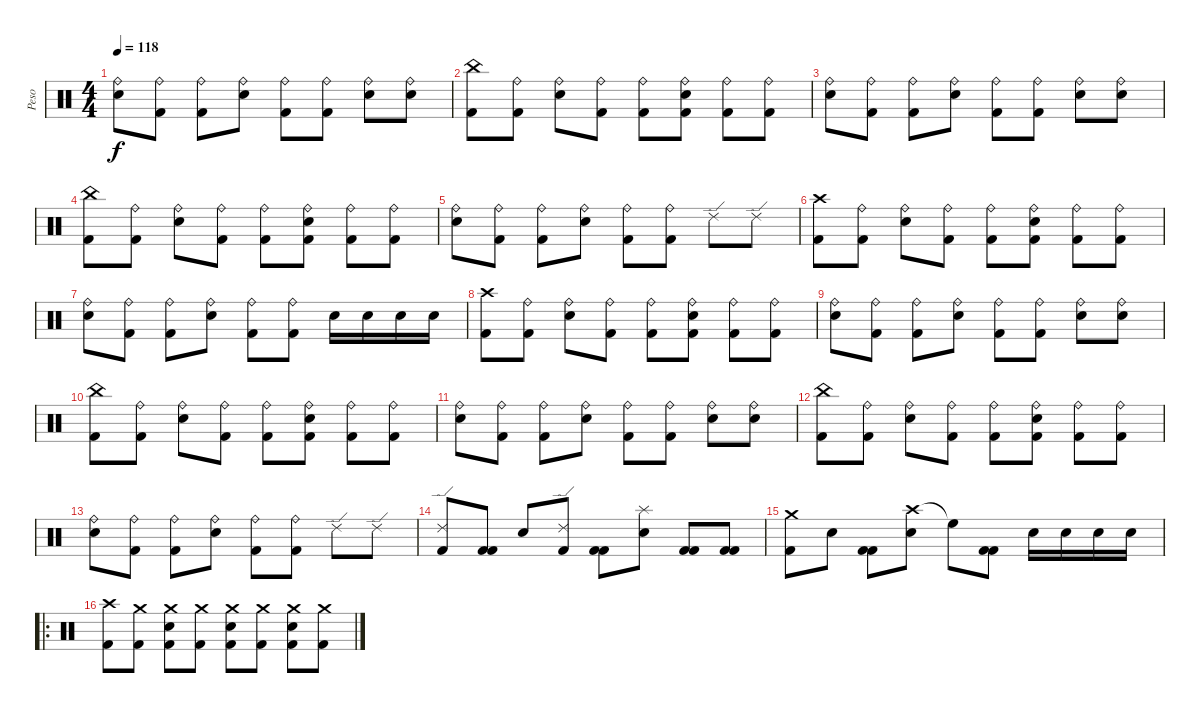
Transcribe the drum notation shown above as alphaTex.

\track ("Peso" "Peso") {instrument percussion}
\staff {score}
\articulation defaults
\ts (4 4)
\tempo 118
\clef neutral
\ks c
("Ride (bell)" "Snare (hit) 2").8{dy f} ("Ride (bell)" "Kick (hit) 2").8 ("Ride (bell)" "Kick (hit) 2").8 ("Ride (bell)" "Snare (hit) 2").8 ("Ride (bell)" "Kick (hit) 2").8 ("Ride (bell)" "Kick (hit) 2").8 ("Ride (bell)" "Snare (hit) 2").8 ("Ride (bell)" "Snare (hit) 2").8 |
("China (hit)" "Kick (hit) 2").8 ("Ride (bell)" "Kick (hit) 2").8 ("Ride (bell)" "Snare (hit) 2").8 ("Ride (bell)" "Kick (hit) 2").8 ("Ride (bell)" "Kick (hit) 2").8 ("Ride (bell)" "Snare (hit) 2" "Kick (hit) 2").8 ("Ride (bell)" "Kick (hit) 2").8 ("Ride (bell)" "Kick (hit) 2").8 |
("Ride (bell)" "Snare (hit) 2").8 ("Ride (bell)" "Kick (hit) 2").8 ("Ride (bell)" "Kick (hit) 2").8 ("Ride (bell)" "Snare (hit) 2").8 ("Ride (bell)" "Kick (hit) 2").8 ("Ride (bell)" "Kick (hit) 2").8 ("Ride (bell)" "Snare (hit) 2").8 ("Ride (bell)" "Snare (hit) 2").8 |
("China (hit)" "Kick (hit) 2").8 ("Ride (bell)" "Kick (hit) 2").8 ("Ride (bell)" "Snare (hit) 2").8 ("Ride (bell)" "Kick (hit) 2").8 ("Ride (bell)" "Kick (hit) 2").8 ("Ride (bell)" "Snare (hit) 2" "Kick (hit) 2").8 ("Ride (bell)" "Kick (hit) 2").8 ("Ride (bell)" "Kick (hit) 2").8 |
("Ride (bell)" "Snare (hit) 2").8 ("Ride (bell)" "Kick (hit) 2").8 ("Ride (bell)" "Kick (hit) 2").8 ("Ride (bell)" "Snare (hit) 2").8 ("Ride (bell)" "Kick (hit) 2").8 ("Ride (bell)" "Kick (hit) 2").8 "Ride (edge) 2".8 "Ride (edge) 2".8 |
("Crash high (hit)" "Kick (hit) 2").8 ("Ride (bell)" "Kick (hit) 2").8 ("Ride (bell)" "Snare (hit) 2").8 ("Ride (bell)" "Kick (hit) 2").8 ("Ride (bell)" "Kick (hit) 2").8 ("Ride (bell)" "Snare (hit) 2" "Kick (hit) 2").8 ("Ride (bell)" "Kick (hit) 2").8 ("Ride (bell)" "Kick (hit) 2").8 |
("Ride (bell)" "Snare (hit) 2").8 ("Ride (bell)" "Kick (hit) 2").8 ("Ride (bell)" "Kick (hit) 2").8 ("Ride (bell)" "Snare (hit) 2").8 ("Ride (bell)" "Kick (hit) 2").8 ("Ride (bell)" "Kick (hit) 2").8 "Snare (hit) 2".16 "Snare (hit) 2".16 "Snare (hit) 2".16 "Snare (hit) 2".16 |
("Crash high (hit)" "Kick (hit) 2").8 ("Ride (bell)" "Kick (hit) 2").8 ("Ride (bell)" "Snare (hit) 2").8 ("Ride (bell)" "Kick (hit) 2").8 ("Ride (bell)" "Kick (hit) 2").8 ("Ride (bell)" "Snare (hit) 2" "Kick (hit) 2").8 ("Ride (bell)" "Kick (hit) 2").8 ("Ride (bell)" "Kick (hit) 2").8 |
("Ride (bell)" "Snare (hit) 2").8 ("Ride (bell)" "Kick (hit) 2").8 ("Ride (bell)" "Kick (hit) 2").8 ("Ride (bell)" "Snare (hit) 2").8 ("Ride (bell)" "Kick (hit) 2").8 ("Ride (bell)" "Kick (hit) 2").8 ("Ride (bell)" "Snare (hit) 2").8 ("Ride (bell)" "Snare (hit) 2").8 |
("China (hit)" "Kick (hit) 2").8 ("Ride (bell)" "Kick (hit) 2").8 ("Ride (bell)" "Snare (hit) 2").8 ("Ride (bell)" "Kick (hit) 2").8 ("Ride (bell)" "Kick (hit) 2").8 ("Ride (bell)" "Snare (hit) 2" "Kick (hit) 2").8 ("Ride (bell)" "Kick (hit) 2").8 ("Ride (bell)" "Kick (hit) 2").8 |
("Ride (bell)" "Snare (hit) 2").8 ("Ride (bell)" "Kick (hit) 2").8 ("Ride (bell)" "Kick (hit) 2").8 ("Ride (bell)" "Snare (hit) 2").8 ("Ride (bell)" "Kick (hit) 2").8 ("Ride (bell)" "Kick (hit) 2").8 ("Ride (bell)" "Snare (hit) 2").8 ("Ride (bell)" "Snare (hit) 2").8 |
("China (hit)" "Kick (hit) 2").8 ("Ride (bell)" "Kick (hit) 2").8 ("Ride (bell)" "Snare (hit) 2").8 ("Ride (bell)" "Kick (hit) 2").8 ("Ride (bell)" "Kick (hit) 2").8 ("Ride (bell)" "Snare (hit) 2" "Kick (hit) 2").8 ("Ride (bell)" "Kick (hit) 2").8 ("Ride (bell)" "Kick (hit) 2").8 |
("Ride (bell)" "Snare (hit) 2").8 ("Ride (bell)" "Kick (hit) 2").8 ("Ride (bell)" "Kick (hit) 2").8 ("Ride (bell)" "Snare (hit) 2").8 ("Ride (bell)" "Kick (hit) 2").8 ("Ride (bell)" "Kick (hit) 2").8 "Ride (edge) 2".8 "Ride (edge) 2".8 |
("Ride (edge) 2" "Kick (hit) 2").8 ("Kick (hit) 2" "Kick (hit) 2").8 "Snare (hit) 2".8 ("Ride (edge) 2" "Kick (hit) 2").8 ("Kick (hit) 2" "Kick (hit) 2").8 ("Splash (hit)" "Snare (hit) 2").8{volume 12} ("Kick (hit) 2" "Kick (hit) 2").8 ("Kick (hit) 2" "Kick (hit) 2").8 |
("Crash medium (hit)" "Kick (hit) 2").8{volume 14} "Snare (hit) 2".8 ("Kick (hit) 2" "Kick (hit) 2").8 ("Crash high (hit)" "Snare (hit) 2").8{volume 16} "High Floor Tom (hit)"{t}.8 ("Kick (hit) 2" "Kick (hit) 2").8 "Snare (hit) 2".16 "Snare (hit) 2".16 "Snare (hit) 2".16 "Snare (hit) 2".16 |
\ro
("Crash high (hit)" "Kick (hit) 2").8 ("Crash medium (hit)" "Kick (hit) 2").8 ("Crash medium (hit)" "Snare (hit) 2" "Kick (hit) 2").8 ("Crash medium (hit)" "Kick (hit) 2").8 ("Crash medium (hit)" "Snare (hit) 2" "Kick (hit) 2").8 ("Crash medium (hit)" "Kick (hit) 2").8 ("Crash medium (hit)" "Snare (hit) 2" "Kick (hit) 2").8 ("Crash medium (hit)" "Kick (hit) 2").8
